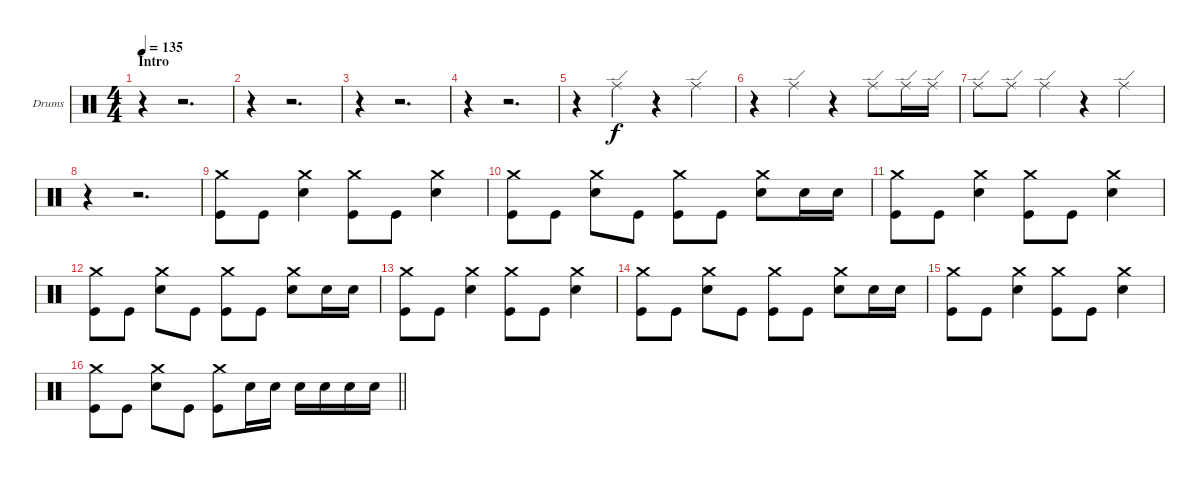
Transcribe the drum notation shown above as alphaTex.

\bracketExtendMode groupsimilarinstruments
\firstSystemTrackNameOrientation horizontal
\otherSystemsTrackNameOrientation horizontal
\track ("Drumkit" "Drums") {instrument percussion}
\staff {score}
\articulation defaults
\ts (4 4)
\section ("" "Intro")
\tempo 135
\clef neutral
\ks c
r.4{dy f} r.2{d} |
r.4 r.2{d} |
r.4 r.2{d} |
r.4 r.2{d} |
r.4 "Ride (edge)".4 r.4 "Ride (edge)".4 |
r.4 "Ride (edge)".4 r.4 "Ride (edge)".8 "Ride (edge)".16 "Ride (edge)".16 |
"Ride (edge)".8 "Ride (edge)".8 "Ride (edge)".4 r.4 "Ride (edge)".4 |
r.4 r.2{d} |
("Crash medium (hit)" "Kick (hit)").8 "Kick (hit)".8 ("Snare (hit) 2" "Crash medium (hit)").4 ("Crash medium (hit)" "Kick (hit)").8 "Kick (hit)".8 ("Snare (hit) 2" "Crash medium (hit)").4 |
("Crash medium (hit)" "Kick (hit)").8 "Kick (hit)".8 ("Snare (hit) 2" "Crash medium (hit)").8 "Kick (hit)".8 ("Crash medium (hit)" "Kick (hit)").8 "Kick (hit)".8 ("Snare (hit) 2" "Crash medium (hit)").8 "Snare (hit) 2".16 "Snare (hit) 2".16 |
("Crash medium (hit)" "Kick (hit)").8 "Kick (hit)".8 ("Snare (hit) 2" "Crash medium (hit)").4 ("Crash medium (hit)" "Kick (hit)").8 "Kick (hit)".8 ("Snare (hit) 2" "Crash medium (hit)").4 |
("Crash medium (hit)" "Kick (hit)").8 "Kick (hit)".8 ("Snare (hit) 2" "Crash medium (hit)").8 "Kick (hit)".8 ("Crash medium (hit)" "Kick (hit)").8 "Kick (hit)".8 ("Snare (hit) 2" "Crash medium (hit)").8 "Snare (hit) 2".16 "Snare (hit) 2".16 |
("Crash medium (hit)" "Kick (hit)").8 "Kick (hit)".8 ("Snare (hit) 2" "Crash medium (hit)").4 ("Crash medium (hit)" "Kick (hit)").8 "Kick (hit)".8 ("Snare (hit) 2" "Crash medium (hit)").4 |
("Crash medium (hit)" "Kick (hit)").8 "Kick (hit)".8 ("Snare (hit) 2" "Crash medium (hit)").8 "Kick (hit)".8 ("Crash medium (hit)" "Kick (hit)").8 "Kick (hit)".8 ("Snare (hit) 2" "Crash medium (hit)").8 "Snare (hit) 2".16 "Snare (hit) 2".16 |
("Crash medium (hit)" "Kick (hit)").8 "Kick (hit)".8 ("Snare (hit) 2" "Crash medium (hit)").4 ("Crash medium (hit)" "Kick (hit)").8 "Kick (hit)".8 ("Snare (hit) 2" "Crash medium (hit)").4 |
\barLineRight lightlight
("Crash medium (hit)" "Kick (hit)").8 "Kick (hit)".8 ("Snare (hit) 2" "Crash medium (hit)").8 "Kick (hit)".8 ("Crash medium (hit)" "Kick (hit)").8 "Snare (hit) 2".16 "Snare (hit) 2".16 "Snare (hit) 2".16 "Snare (hit) 2".16 "Snare (hit) 2".16 "Snare (hit) 2".16
